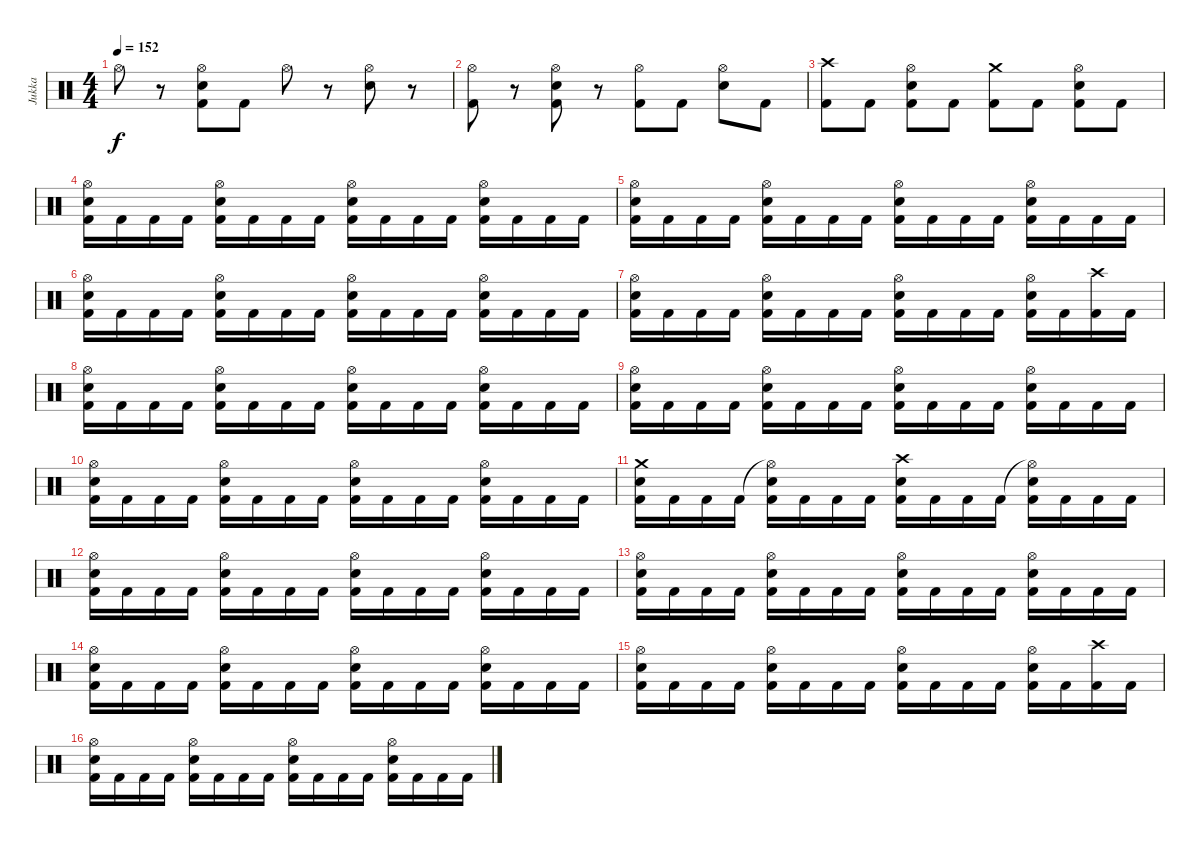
\track ("Jukka" "Jukka") {instrument percussion}
\staff {score}
\articulation defaults
\ts (4 4)
\tempo 152
\clef neutral
\ks c "Hi-Hat (open)".8{dy f}
r.8 ("Hi-Hat (open)" "Electric Snare (hit)" "Kick (hit) 2").8 "Kick (hit) 2".8 "Hi-Hat (open)".8 r.8 ("Hi-Hat (open)" "Electric Snare (hit)").8 r.8 |
("Hi-Hat (open)" "Kick (hit) 2").8 r.8 ("Hi-Hat (open)" "Electric Snare (hit)" "Kick (hit) 2").8 r.8 ("Hi-Hat (open)" "Kick (hit) 2").8 "Kick (hit) 2".8 ("Hi-Hat (open)" "Electric Snare (hit)").8 "Kick (hit) 2".8 |
("Crash high (hit)" "Kick (hit) 2").8 "Kick (hit) 2".8 ("Hi-Hat (open)" "Electric Snare (hit)" "Kick (hit) 2").8 "Kick (hit) 2".8 ("Crash medium (hit)" "Kick (hit) 2").8 "Kick (hit) 2".8 ("Hi-Hat (open)" "Electric Snare (hit)" "Kick (hit) 2").8 "Kick (hit) 2".8 |
("Hi-Hat (open)" "Electric Snare (hit)" "Kick (hit) 2").16 "Kick (hit) 2".16 "Kick (hit) 2".16 "Kick (hit) 2".16 ("Hi-Hat (open)" "Electric Snare (hit)" "Kick (hit) 2").16 "Kick (hit) 2".16 "Kick (hit) 2".16 "Kick (hit) 2".16 ("Hi-Hat (open)" "Electric Snare (hit)" "Kick (hit) 2").16 "Kick (hit) 2".16 "Kick (hit) 2".16 "Kick (hit) 2".16 ("Hi-Hat (open)" "Electric Snare (hit)" "Kick (hit) 2").16 "Kick (hit) 2".16 "Kick (hit) 2".16 "Kick (hit) 2".16 |
("Hi-Hat (open)" "Electric Snare (hit)" "Kick (hit) 2").16 "Kick (hit) 2".16 "Kick (hit) 2".16 "Kick (hit) 2".16 ("Hi-Hat (open)" "Electric Snare (hit)" "Kick (hit) 2").16 "Kick (hit) 2".16 "Kick (hit) 2".16 "Kick (hit) 2".16 ("Hi-Hat (open)" "Electric Snare (hit)" "Kick (hit) 2").16 "Kick (hit) 2".16 "Kick (hit) 2".16 "Kick (hit) 2".16 ("Hi-Hat (open)" "Electric Snare (hit)" "Kick (hit) 2").16 "Kick (hit) 2".16 "Kick (hit) 2".16 "Kick (hit) 2".16 |
("Hi-Hat (open)" "Electric Snare (hit)" "Kick (hit) 2").16 "Kick (hit) 2".16 "Kick (hit) 2".16 "Kick (hit) 2".16 ("Hi-Hat (open)" "Electric Snare (hit)" "Kick (hit) 2").16 "Kick (hit) 2".16 "Kick (hit) 2".16 "Kick (hit) 2".16 ("Hi-Hat (open)" "Electric Snare (hit)" "Kick (hit) 2").16 "Kick (hit) 2".16 "Kick (hit) 2".16 "Kick (hit) 2".16 ("Hi-Hat (open)" "Electric Snare (hit)" "Kick (hit) 2").16 "Kick (hit) 2".16 "Kick (hit) 2".16 "Kick (hit) 2".16 |
("Hi-Hat (open)" "Electric Snare (hit)" "Kick (hit) 2").16 "Kick (hit) 2".16 "Kick (hit) 2".16 "Kick (hit) 2".16 ("Hi-Hat (open)" "Electric Snare (hit)" "Kick (hit) 2").16 "Kick (hit) 2".16 "Kick (hit) 2".16 "Kick (hit) 2".16 ("Hi-Hat (open)" "Electric Snare (hit)" "Kick (hit) 2").16 "Kick (hit) 2".16 "Kick (hit) 2".16 "Kick (hit) 2".16 ("Hi-Hat (open)" "Electric Snare (hit)" "Kick (hit) 2").16 "Kick (hit) 2".16 ("Crash high (hit)" "Kick (hit) 2").16 "Kick (hit) 2".16 |
("Hi-Hat (open)" "Electric Snare (hit)" "Kick (hit) 2").16 "Kick (hit) 2".16 "Kick (hit) 2".16 "Kick (hit) 2".16 ("Hi-Hat (open)" "Electric Snare (hit)" "Kick (hit) 2").16 "Kick (hit) 2".16 "Kick (hit) 2".16 "Kick (hit) 2".16 ("Hi-Hat (open)" "Electric Snare (hit)" "Kick (hit) 2").16 "Kick (hit) 2".16 "Kick (hit) 2".16 "Kick (hit) 2".16 ("Hi-Hat (open)" "Electric Snare (hit)" "Kick (hit) 2").16 "Kick (hit) 2".16 "Kick (hit) 2".16 "Kick (hit) 2".16 |
("Hi-Hat (open)" "Electric Snare (hit)" "Kick (hit) 2").16 "Kick (hit) 2".16 "Kick (hit) 2".16 "Kick (hit) 2".16 ("Hi-Hat (open)" "Electric Snare (hit)" "Kick (hit) 2").16 "Kick (hit) 2".16 "Kick (hit) 2".16 "Kick (hit) 2".16 ("Hi-Hat (open)" "Electric Snare (hit)" "Kick (hit) 2").16 "Kick (hit) 2".16 "Kick (hit) 2".16 "Kick (hit) 2".16 ("Hi-Hat (open)" "Electric Snare (hit)" "Kick (hit) 2").16 "Kick (hit) 2".16 "Kick (hit) 2".16 "Kick (hit) 2".16 |
("Hi-Hat (open)" "Electric Snare (hit)" "Kick (hit) 2").16 "Kick (hit) 2".16 "Kick (hit) 2".16 "Kick (hit) 2".16 ("Hi-Hat (open)" "Electric Snare (hit)" "Kick (hit) 2").16 "Kick (hit) 2".16 "Kick (hit) 2".16 "Kick (hit) 2".16 ("Hi-Hat (open)" "Electric Snare (hit)" "Kick (hit) 2").16 "Kick (hit) 2".16 "Kick (hit) 2".16 "Kick (hit) 2".16 ("Hi-Hat (open)" "Electric Snare (hit)" "Kick (hit) 2").16 "Kick (hit) 2".16 "Kick (hit) 2".16 "Kick (hit) 2".16 |
("Crash medium (hit)" "Electric Snare (hit)" "Kick (hit) 2").16 "Kick (hit) 2".16 "Kick (hit) 2".16 "Kick (hit) 2".16 ("Hi-Hat (open)"{t} "Electric Snare (hit)" "Kick (hit) 2").16 "Kick (hit) 2".16 "Kick (hit) 2".16 "Kick (hit) 2".16 ("Crash high (hit)" "Electric Snare (hit)" "Kick (hit) 2").16 "Kick (hit) 2".16 "Kick (hit) 2".16 "Kick (hit) 2".16 ("Hi-Hat (open)"{t} "Electric Snare (hit)" "Kick (hit) 2").16 "Kick (hit) 2".16 "Kick (hit) 2".16 "Kick (hit) 2".16 |
("Hi-Hat (open)" "Electric Snare (hit)" "Kick (hit) 2").16 "Kick (hit) 2".16 "Kick (hit) 2".16 "Kick (hit) 2".16 ("Hi-Hat (open)" "Electric Snare (hit)" "Kick (hit) 2").16 "Kick (hit) 2".16 "Kick (hit) 2".16 "Kick (hit) 2".16 ("Hi-Hat (open)" "Electric Snare (hit)" "Kick (hit) 2").16 "Kick (hit) 2".16 "Kick (hit) 2".16 "Kick (hit) 2".16 ("Hi-Hat (open)" "Electric Snare (hit)" "Kick (hit) 2").16 "Kick (hit) 2".16 "Kick (hit) 2".16 "Kick (hit) 2".16 |
("Hi-Hat (open)" "Electric Snare (hit)" "Kick (hit) 2").16 "Kick (hit) 2".16 "Kick (hit) 2".16 "Kick (hit) 2".16 ("Hi-Hat (open)" "Electric Snare (hit)" "Kick (hit) 2").16 "Kick (hit) 2".16 "Kick (hit) 2".16 "Kick (hit) 2".16 ("Hi-Hat (open)" "Electric Snare (hit)" "Kick (hit) 2").16 "Kick (hit) 2".16 "Kick (hit) 2".16 "Kick (hit) 2".16 ("Hi-Hat (open)" "Electric Snare (hit)" "Kick (hit) 2").16 "Kick (hit) 2".16 "Kick (hit) 2".16 "Kick (hit) 2".16 |
("Hi-Hat (open)" "Electric Snare (hit)" "Kick (hit) 2").16 "Kick (hit) 2".16 "Kick (hit) 2".16 "Kick (hit) 2".16 ("Hi-Hat (open)" "Electric Snare (hit)" "Kick (hit) 2").16 "Kick (hit) 2".16 "Kick (hit) 2".16 "Kick (hit) 2".16 ("Hi-Hat (open)" "Electric Snare (hit)" "Kick (hit) 2").16 "Kick (hit) 2".16 "Kick (hit) 2".16 "Kick (hit) 2".16 ("Hi-Hat (open)" "Electric Snare (hit)" "Kick (hit) 2").16 "Kick (hit) 2".16 "Kick (hit) 2".16 "Kick (hit) 2".16 |
("Hi-Hat (open)" "Electric Snare (hit)" "Kick (hit) 2").16 "Kick (hit) 2".16 "Kick (hit) 2".16 "Kick (hit) 2".16 ("Hi-Hat (open)" "Electric Snare (hit)" "Kick (hit) 2").16 "Kick (hit) 2".16 "Kick (hit) 2".16 "Kick (hit) 2".16 ("Hi-Hat (open)" "Electric Snare (hit)" "Kick (hit) 2").16 "Kick (hit) 2".16 "Kick (hit) 2".16 "Kick (hit) 2".16 ("Hi-Hat (open)" "Electric Snare (hit)" "Kick (hit) 2").16 "Kick (hit) 2".16 ("Crash high (hit)" "Kick (hit) 2").16 "Kick (hit) 2".16 |
("Hi-Hat (open)" "Electric Snare (hit)" "Kick (hit) 2").16 "Kick (hit) 2".16 "Kick (hit) 2".16 "Kick (hit) 2".16 ("Hi-Hat (open)" "Electric Snare (hit)" "Kick (hit) 2").16 "Kick (hit) 2".16 "Kick (hit) 2".16 "Kick (hit) 2".16 ("Hi-Hat (open)" "Electric Snare (hit)" "Kick (hit) 2").16 "Kick (hit) 2".16 "Kick (hit) 2".16 "Kick (hit) 2".16 ("Hi-Hat (open)" "Electric Snare (hit)" "Kick (hit) 2").16 "Kick (hit) 2".16 "Kick (hit) 2".16 "Kick (hit) 2".16
